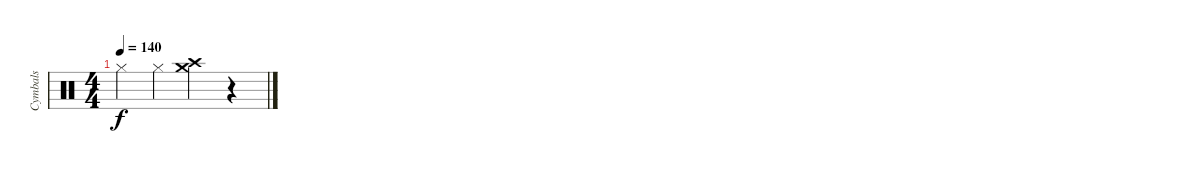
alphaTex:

\track ("Cymbals" "Cymbals") {instrument percussion}
\staff {score}
\articulation defaults
\ts (4 4)
\tempo 140
\clef neutral
\ks c "Hi-Hat (closed)".4{dy f} "Hi-Hat (closed)".4
("Crash high (hit)" "Crash medium (hit)").4 r.4
